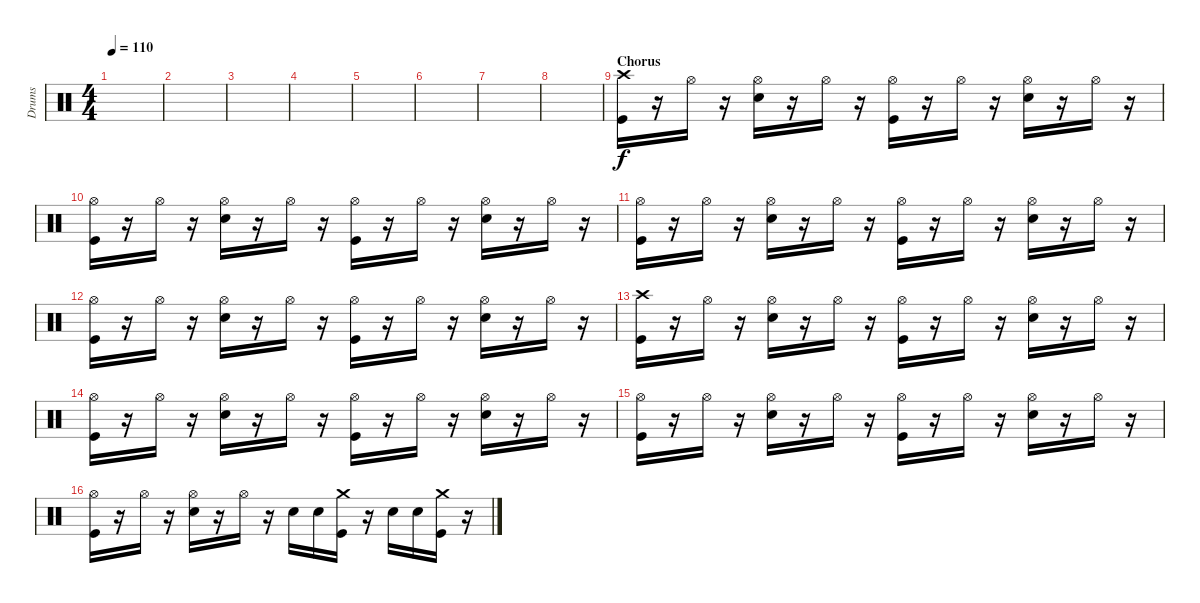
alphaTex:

\track ("Drums" "Drums") {instrument percussion}
\staff {score}
\articulation defaults
\ts (4 4)
\tempo 110
\clef neutral
\ks c
|
|
|
|
|
|
|
|
\section ("" "Chorus")
("Crash high (hit)" "Kick (hit)").16 r.16 "Hi-Hat (open)".16 r.16 ("Hi-Hat (open)" "Snare (hit) 2").16 r.16 "Hi-Hat (open)".16 r.16 ("Hi-Hat (open)" "Kick (hit)").16 r.16 "Hi-Hat (open)".16 r.16 ("Hi-Hat (open)" "Snare (hit) 2").16 r.16 "Hi-Hat (open)".16 r.16 |
("Hi-Hat (open)" "Kick (hit)").16 r.16 "Hi-Hat (open)".16 r.16 ("Hi-Hat (open)" "Snare (hit) 2").16 r.16 "Hi-Hat (open)".16 r.16 ("Hi-Hat (open)" "Kick (hit)").16 r.16 "Hi-Hat (open)".16 r.16 ("Hi-Hat (open)" "Snare (hit) 2").16 r.16 "Hi-Hat (open)".16 r.16 |
("Hi-Hat (open)" "Kick (hit)").16 r.16 "Hi-Hat (open)".16 r.16 ("Hi-Hat (open)" "Snare (hit) 2").16 r.16 "Hi-Hat (open)".16 r.16 ("Hi-Hat (open)" "Kick (hit)").16 r.16 "Hi-Hat (open)".16 r.16 ("Hi-Hat (open)" "Snare (hit) 2").16 r.16 "Hi-Hat (open)".16 r.16 |
("Hi-Hat (open)" "Kick (hit)").16 r.16 "Hi-Hat (open)".16 r.16 ("Hi-Hat (open)" "Snare (hit) 2").16 r.16 "Hi-Hat (open)".16 r.16 ("Hi-Hat (open)" "Kick (hit)").16 r.16 "Hi-Hat (open)".16 r.16 ("Hi-Hat (open)" "Snare (hit) 2").16 r.16 "Hi-Hat (open)".16 r.16 |
("Crash high (hit)" "Kick (hit)").16 r.16 "Hi-Hat (open)".16 r.16 ("Hi-Hat (open)" "Snare (hit) 2").16 r.16 "Hi-Hat (open)".16 r.16 ("Hi-Hat (open)" "Kick (hit)").16 r.16 "Hi-Hat (open)".16 r.16 ("Hi-Hat (open)" "Snare (hit) 2").16 r.16 "Hi-Hat (open)".16 r.16 |
("Hi-Hat (open)" "Kick (hit)").16 r.16 "Hi-Hat (open)".16 r.16 ("Hi-Hat (open)" "Snare (hit) 2").16 r.16 "Hi-Hat (open)".16 r.16 ("Hi-Hat (open)" "Kick (hit)").16 r.16 "Hi-Hat (open)".16 r.16 ("Hi-Hat (open)" "Snare (hit) 2").16 r.16 "Hi-Hat (open)".16 r.16 |
("Hi-Hat (open)" "Kick (hit)").16 r.16 "Hi-Hat (open)".16 r.16 ("Hi-Hat (open)" "Snare (hit) 2").16 r.16 "Hi-Hat (open)".16 r.16 ("Hi-Hat (open)" "Kick (hit)").16 r.16 "Hi-Hat (open)".16 r.16 ("Hi-Hat (open)" "Snare (hit) 2").16 r.16 "Hi-Hat (open)".16 r.16 |
("Hi-Hat (open)" "Kick (hit)").16 r.16 "Hi-Hat (open)".16 r.16 ("Hi-Hat (open)" "Snare (hit) 2").16 r.16 "Hi-Hat (open)".16 r.16 "Snare (hit) 2".16 "Snare (hit) 2".16 ("Crash medium (hit)" "Kick (hit)").16 r.16 "Snare (hit) 2".16 "Snare (hit) 2".16 ("Crash medium (hit)" "Kick (hit)").16 r.16
